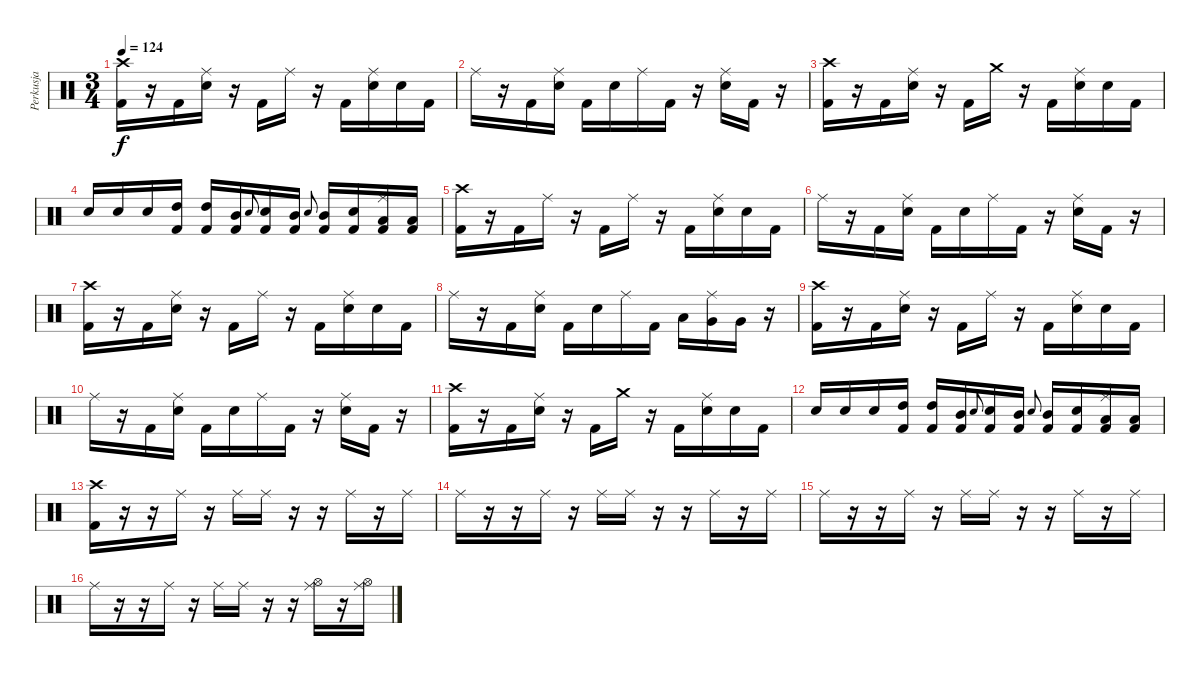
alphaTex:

\track ("Perkusja" "Perkusja") {instrument percussion}
\staff {score}
\articulation defaults
\ts (3 4)
\tempo 124
\clef neutral
\ks c
("Crash high (hit)" "Kick (hit) 2").16{dy f} r.16 "Kick (hit) 2".16 ("Ride (middle)" "Electric Snare (hit)").16 r.16 "Kick (hit) 2".16 "Ride (middle)".16 r.16 "Kick (hit) 2".16 ("Ride (middle)" "Electric Snare (hit)").16 "Electric Snare (hit)".16 "Kick (hit) 2".16 |
"Ride (middle)".16 r.16 "Kick (hit) 2".16 ("Ride (middle)" "Electric Snare (hit)").16 "Kick (hit) 2".16 "Electric Snare (hit)".16 "Ride (middle)".16 "Kick (hit) 2".16 r.16 ("Ride (middle)" "Electric Snare (hit)").16 "Kick (hit) 2".16 r.16 |
("Crash high (hit)" "Kick (hit) 2").16 r.16 "Kick (hit) 2".16 ("Ride (middle)" "Electric Snare (hit)").16 r.16 "Kick (hit) 2".16 "Crash medium (hit)".16 r.16 "Kick (hit) 2".16 ("Ride (middle)" "Electric Snare (hit)").16 "Electric Snare (hit)".16 "Kick (hit) 2".16 |
"Electric Snare (hit)".16 "Electric Snare (hit)".16 "Electric Snare (hit)".16 ("High Tom (hit)" "Kick (hit) 2").16 ("High Tom (hit)" "Kick (hit) 2").16 ("Mid Tom (hit)" "Kick (hit) 2").16 "Electric Snare (hit)".8{gr onbeat} ("Electric Snare (hit)" "Kick (hit) 2").16 ("Mid Tom (hit)" "Kick (hit) 2").16 "Electric Snare (hit)".8{gr onbeat} ("Mid Tom (hit)" "Kick (hit) 2").16 ("Electric Snare (hit)" "Kick (hit) 2").16 ("Ride (middle)" "Low Floor Tom (hit)" "Kick (hit) 2").16 ("Low Floor Tom (hit)" "Kick (hit) 2").16 |
("Crash high (hit)" "Kick (hit) 2").16 r.16 "Kick (hit) 2".16 "Ride (middle)".16 r.16 "Kick (hit) 2".16 "Ride (middle)".16 r.16 "Kick (hit) 2".16 ("Ride (middle)" "Electric Snare (hit)").16 "Electric Snare (hit)".16 "Kick (hit) 2".16 |
"Ride (middle)".16 r.16 "Kick (hit) 2".16 ("Ride (middle)" "Electric Snare (hit)").16 "Kick (hit) 2".16 "Electric Snare (hit)".16 "Ride (middle)".16 "Kick (hit) 2".16 r.16 ("Ride (middle)" "Electric Snare (hit)").16 "Kick (hit) 2".16 r.16 |
("Crash high (hit)" "Kick (hit) 2").16 r.16 "Kick (hit) 2".16 ("Ride (middle)" "Electric Snare (hit)").16 r.16 "Kick (hit) 2".16 "Ride (middle)".16 r.16 "Kick (hit) 2".16 ("Ride (middle)" "Electric Snare (hit)").16 "Electric Snare (hit)".16 "Kick (hit) 2".16 |
"Ride (middle)".16 r.16 "Kick (hit) 2".16 ("Ride (middle)" "Electric Snare (hit)").16 "Kick (hit) 2".16 "Electric Snare (hit)".16 "Ride (middle)".16 "Kick (hit) 2".16 "Low Tom (hit)".16 ("Ride (middle)" "Very Low Tom (hit)").16 "Very Low Tom (hit)".16 r.16 |
("Crash high (hit)" "Kick (hit) 2").16 r.16 "Kick (hit) 2".16 ("Ride (middle)" "Electric Snare (hit)").16 r.16 "Kick (hit) 2".16 "Ride (middle)".16 r.16 "Kick (hit) 2".16 ("Ride (middle)" "Electric Snare (hit)").16 "Electric Snare (hit)".16 "Kick (hit) 2".16 |
"Ride (middle)".16 r.16 "Kick (hit) 2".16 ("Ride (middle)" "Electric Snare (hit)").16 "Kick (hit) 2".16 "Electric Snare (hit)".16 "Ride (middle)".16 "Kick (hit) 2".16 r.16 ("Ride (middle)" "Electric Snare (hit)").16 "Kick (hit) 2".16 r.16 |
("Crash high (hit)" "Kick (hit) 2").16 r.16 "Kick (hit) 2".16 ("Ride (middle)" "Electric Snare (hit)").16 r.16 "Kick (hit) 2".16 "Crash medium (hit)".16 r.16 "Kick (hit) 2".16 ("Ride (middle)" "Electric Snare (hit)").16 "Electric Snare (hit)".16 "Kick (hit) 2".16 |
"Electric Snare (hit)".16 "Electric Snare (hit)".16 "Electric Snare (hit)".16 ("High Tom (hit)" "Kick (hit) 2").16 ("High Tom (hit)" "Kick (hit) 2").16 ("Mid Tom (hit)" "Kick (hit) 2").16 "Electric Snare (hit)".8{gr onbeat} ("Electric Snare (hit)" "Kick (hit) 2").16 ("Mid Tom (hit)" "Kick (hit) 2").16 "Electric Snare (hit)".8{gr onbeat} ("Mid Tom (hit)" "Kick (hit) 2").16 ("Electric Snare (hit)" "Kick (hit) 2").16 ("Ride (middle)" "Low Floor Tom (hit)" "Kick (hit) 2").16 ("Low Floor Tom (hit)" "Kick (hit) 2").16 |
("Kick (hit) 2" "Crash high (hit)").16 r.16 r.16 "Ride (middle)".16 r.16 "Ride (middle)".16 "Ride (middle)".16 r.16 r.16 "Ride (middle)".16 r.16 "Ride (middle)".16 |
"Ride (middle)".16 r.16 r.16 "Ride (middle)".16 r.16 "Ride (middle)".16 "Ride (middle)".16 r.16 r.16 "Ride (middle)".16 r.16 "Ride (middle)".16 |
"Ride (middle)".16 r.16 r.16 "Ride (middle)".16 r.16 "Ride (middle)".16 "Ride (middle)".16 r.16 r.16 "Ride (middle)".16 r.16 "Ride (middle)".16 |
"Ride (middle)".16 r.16 r.16 "Ride (middle)".16 r.16 "Ride (middle)".16 "Ride (middle)".16 r.16 r.16 ("Ride (middle)" "Hi-Hat (open)").16 r.16 ("Ride (middle)" "Hi-Hat (open)").16
